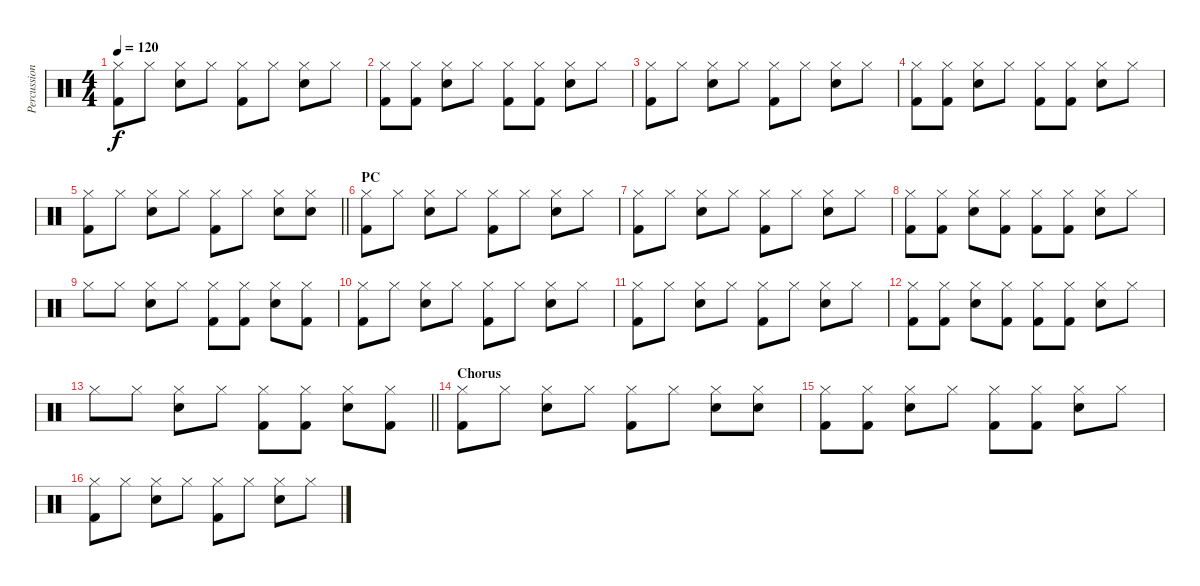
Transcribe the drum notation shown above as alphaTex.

\track ("Percussion" "Percussion") {instrument percussion}
\staff {score}
\articulation defaults
\ts (4 4)
\tempo 120
\clef neutral
\ks c
("Hi-Hat (closed)" "Kick (hit) 2").8{dy f} "Hi-Hat (closed)".8 ("Hi-Hat (closed)" "Electric Snare (hit)").8 "Hi-Hat (closed)".8 ("Hi-Hat (closed)" "Kick (hit) 2").8 "Hi-Hat (closed)".8 ("Hi-Hat (closed)" "Electric Snare (hit)").8 "Hi-Hat (closed)".8 |
("Hi-Hat (closed)" "Kick (hit) 2").8 ("Hi-Hat (closed)" "Kick (hit) 2").8 ("Hi-Hat (closed)" "Electric Snare (hit)").8 "Hi-Hat (closed)".8 ("Hi-Hat (closed)" "Kick (hit) 2").8 ("Hi-Hat (closed)" "Kick (hit) 2").8 ("Hi-Hat (closed)" "Electric Snare (hit)").8 "Hi-Hat (closed)".8 |
("Hi-Hat (closed)" "Kick (hit) 2").8 "Hi-Hat (closed)".8 ("Hi-Hat (closed)" "Electric Snare (hit)").8 "Hi-Hat (closed)".8 ("Hi-Hat (closed)" "Kick (hit) 2").8 "Hi-Hat (closed)".8 ("Hi-Hat (closed)" "Electric Snare (hit)").8 "Hi-Hat (closed)".8 |
("Hi-Hat (closed)" "Kick (hit) 2").8 ("Hi-Hat (closed)" "Kick (hit) 2").8 ("Hi-Hat (closed)" "Electric Snare (hit)").8 "Hi-Hat (closed)".8 ("Hi-Hat (closed)" "Kick (hit) 2").8 ("Hi-Hat (closed)" "Kick (hit) 2").8 ("Hi-Hat (closed)" "Electric Snare (hit)").8 "Hi-Hat (closed)".8 |
\barLineRight lightlight
("Hi-Hat (closed)" "Kick (hit) 2").8 "Hi-Hat (closed)".8 ("Hi-Hat (closed)" "Electric Snare (hit)").8 "Hi-Hat (closed)".8 ("Hi-Hat (closed)" "Kick (hit) 2").8 "Hi-Hat (closed)".8 ("Hi-Hat (closed)" "Electric Snare (hit)").8 ("Hi-Hat (closed)" "Electric Snare (hit)").8 |
\section ("" "PC")
("Hi-Hat (closed)" "Kick (hit) 2").8 "Hi-Hat (closed)".8 ("Hi-Hat (closed)" "Electric Snare (hit)").8 "Hi-Hat (closed)".8 ("Hi-Hat (closed)" "Kick (hit) 2").8 "Hi-Hat (closed)".8 ("Hi-Hat (closed)" "Electric Snare (hit)").8 "Hi-Hat (closed)".8 |
("Hi-Hat (closed)" "Kick (hit) 2").8 "Hi-Hat (closed)".8 ("Hi-Hat (closed)" "Electric Snare (hit)").8 "Hi-Hat (closed)".8 ("Hi-Hat (closed)" "Kick (hit) 2").8 "Hi-Hat (closed)".8 ("Hi-Hat (closed)" "Electric Snare (hit)").8 "Hi-Hat (closed)".8 |
("Hi-Hat (closed)" "Kick (hit) 2").8 ("Hi-Hat (closed)" "Kick (hit) 2").8 ("Hi-Hat (closed)" "Electric Snare (hit)").8 ("Hi-Hat (closed)" "Kick (hit) 2").8 ("Hi-Hat (closed)" "Kick (hit) 2").8 ("Hi-Hat (closed)" "Kick (hit) 2").8 ("Hi-Hat (closed)" "Electric Snare (hit)").8 "Hi-Hat (closed)".8 |
"Hi-Hat (closed)".8 "Hi-Hat (closed)".8 ("Hi-Hat (closed)" "Electric Snare (hit)").8 "Hi-Hat (closed)".8 ("Hi-Hat (closed)" "Kick (hit) 2").8 ("Hi-Hat (closed)" "Kick (hit) 2").8 ("Hi-Hat (closed)" "Electric Snare (hit)").8 ("Hi-Hat (closed)" "Kick (hit) 2").8 |
("Hi-Hat (closed)" "Kick (hit) 2").8 "Hi-Hat (closed)".8 ("Hi-Hat (closed)" "Electric Snare (hit)").8 "Hi-Hat (closed)".8 ("Hi-Hat (closed)" "Kick (hit) 2").8 "Hi-Hat (closed)".8 ("Hi-Hat (closed)" "Electric Snare (hit)").8 "Hi-Hat (closed)".8 |
("Hi-Hat (closed)" "Kick (hit) 2").8 "Hi-Hat (closed)".8 ("Hi-Hat (closed)" "Electric Snare (hit)").8 "Hi-Hat (closed)".8 ("Hi-Hat (closed)" "Kick (hit) 2").8 "Hi-Hat (closed)".8 ("Hi-Hat (closed)" "Electric Snare (hit)").8 "Hi-Hat (closed)".8 |
("Hi-Hat (closed)" "Kick (hit) 2").8 ("Hi-Hat (closed)" "Kick (hit) 2").8 ("Hi-Hat (closed)" "Electric Snare (hit)").8 ("Hi-Hat (closed)" "Kick (hit) 2").8 ("Hi-Hat (closed)" "Kick (hit) 2").8 ("Hi-Hat (closed)" "Kick (hit) 2").8 ("Hi-Hat (closed)" "Electric Snare (hit)").8 "Hi-Hat (closed)".8 |
\barLineRight lightlight "Hi-Hat (closed)".8 "Hi-Hat (closed)".8
("Hi-Hat (closed)" "Electric Snare (hit)").8 "Hi-Hat (closed)".8 ("Hi-Hat (closed)" "Kick (hit) 2").8 ("Hi-Hat (closed)" "Kick (hit) 2").8 ("Hi-Hat (closed)" "Electric Snare (hit)").8 ("Hi-Hat (closed)" "Kick (hit) 2").8 |
\section ("" "Chorus")
("Hi-Hat (closed)" "Kick (hit) 2").8 "Hi-Hat (closed)".8 ("Hi-Hat (closed)" "Electric Snare (hit)").8 "Hi-Hat (closed)".8 ("Hi-Hat (closed)" "Kick (hit) 2").8 "Hi-Hat (closed)".8 ("Hi-Hat (closed)" "Electric Snare (hit)").8 ("Hi-Hat (closed)" "Electric Snare (hit)").8 |
("Hi-Hat (closed)" "Kick (hit) 2").8 ("Hi-Hat (closed)" "Kick (hit) 2").8 ("Hi-Hat (closed)" "Electric Snare (hit)").8 "Hi-Hat (closed)".8 ("Hi-Hat (closed)" "Kick (hit) 2").8 ("Hi-Hat (closed)" "Kick (hit) 2").8 ("Hi-Hat (closed)" "Electric Snare (hit)").8 "Hi-Hat (closed)".8 |
("Hi-Hat (closed)" "Kick (hit) 2").8 "Hi-Hat (closed)".8 ("Hi-Hat (closed)" "Electric Snare (hit)").8 "Hi-Hat (closed)".8 ("Hi-Hat (closed)" "Kick (hit) 2").8 "Hi-Hat (closed)".8 ("Hi-Hat (closed)" "Electric Snare (hit)").8 "Hi-Hat (closed)".8
